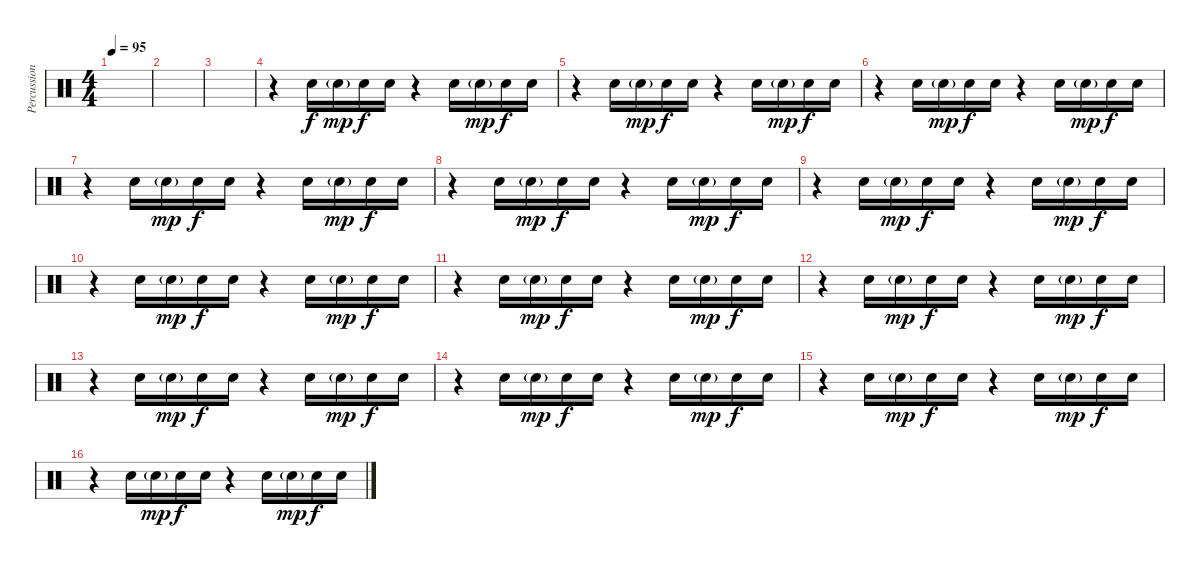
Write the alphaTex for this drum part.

\track ("Percussion" "Percussion") {instrument percussion}
\staff {score}
\articulation defaults
\ts (4 4)
\tempo 95
\clef neutral
\ks c
|
|
|
r.4 "Electric Snare (hit)".16 "Electric Snare (hit)"{g}.16{dy mp} "Snare (hit) 2".16{dy f} "Snare (hit) 2".16 r.4 "Electric Snare (hit)".16 "Electric Snare (hit)"{g}.16{dy mp} "Snare (hit) 2".16{dy f} "Snare (hit) 2".16 |
r.4 "Electric Snare (hit)".16 "Electric Snare (hit)"{g}.16{dy mp} "Snare (hit) 2".16{dy f} "Snare (hit) 2".16 r.4 "Electric Snare (hit)".16 "Electric Snare (hit)"{g}.16{dy mp} "Snare (hit) 2".16{dy f} "Snare (hit) 2".16 |
r.4 "Electric Snare (hit)".16 "Electric Snare (hit)"{g}.16{dy mp} "Snare (hit) 2".16{dy f} "Snare (hit) 2".16 r.4 "Electric Snare (hit)".16 "Electric Snare (hit)"{g}.16{dy mp} "Snare (hit) 2".16{dy f} "Snare (hit) 2".16 |
r.4 "Electric Snare (hit)".16 "Electric Snare (hit)"{g}.16{dy mp} "Snare (hit) 2".16{dy f} "Snare (hit) 2".16 r.4 "Electric Snare (hit)".16 "Electric Snare (hit)"{g}.16{dy mp} "Snare (hit) 2".16{dy f} "Snare (hit) 2".16 |
r.4 "Electric Snare (hit)".16 "Electric Snare (hit)"{g}.16{dy mp} "Snare (hit) 2".16{dy f} "Snare (hit) 2".16 r.4 "Electric Snare (hit)".16 "Electric Snare (hit)"{g}.16{dy mp} "Snare (hit) 2".16{dy f} "Snare (hit) 2".16 |
r.4 "Electric Snare (hit)".16 "Electric Snare (hit)"{g}.16{dy mp} "Snare (hit) 2".16{dy f} "Snare (hit) 2".16 r.4 "Electric Snare (hit)".16 "Electric Snare (hit)"{g}.16{dy mp} "Snare (hit) 2".16{dy f} "Snare (hit) 2".16 |
r.4 "Electric Snare (hit)".16 "Electric Snare (hit)"{g}.16{dy mp} "Snare (hit) 2".16{dy f} "Snare (hit) 2".16 r.4 "Electric Snare (hit)".16 "Electric Snare (hit)"{g}.16{dy mp} "Snare (hit) 2".16{dy f} "Snare (hit) 2".16 |
r.4 "Electric Snare (hit)".16 "Electric Snare (hit)"{g}.16{dy mp} "Snare (hit) 2".16{dy f} "Snare (hit) 2".16 r.4 "Electric Snare (hit)".16 "Electric Snare (hit)"{g}.16{dy mp} "Snare (hit) 2".16{dy f} "Snare (hit) 2".16 |
r.4 "Electric Snare (hit)".16 "Electric Snare (hit)"{g}.16{dy mp} "Snare (hit) 2".16{dy f} "Snare (hit) 2".16 r.4 "Electric Snare (hit)".16 "Electric Snare (hit)"{g}.16{dy mp} "Snare (hit) 2".16{dy f} "Snare (hit) 2".16 |
r.4 "Electric Snare (hit)".16 "Electric Snare (hit)"{g}.16{dy mp} "Snare (hit) 2".16{dy f} "Snare (hit) 2".16 r.4 "Electric Snare (hit)".16 "Electric Snare (hit)"{g}.16{dy mp} "Snare (hit) 2".16{dy f} "Snare (hit) 2".16 |
r.4 "Electric Snare (hit)".16 "Electric Snare (hit)"{g}.16{dy mp} "Snare (hit) 2".16{dy f} "Snare (hit) 2".16 r.4 "Electric Snare (hit)".16 "Electric Snare (hit)"{g}.16{dy mp} "Snare (hit) 2".16{dy f} "Snare (hit) 2".16 |
r.4 "Electric Snare (hit)".16 "Electric Snare (hit)"{g}.16{dy mp} "Snare (hit) 2".16{dy f} "Snare (hit) 2".16 r.4 "Electric Snare (hit)".16 "Electric Snare (hit)"{g}.16{dy mp} "Snare (hit) 2".16{dy f} "Snare (hit) 2".16 |
r.4 "Electric Snare (hit)".16 "Electric Snare (hit)"{g}.16{dy mp} "Snare (hit) 2".16{dy f} "Snare (hit) 2".16 r.4 "Electric Snare (hit)".16 "Electric Snare (hit)"{g}.16{dy mp} "Snare (hit) 2".16{dy f} "Snare (hit) 2".16
